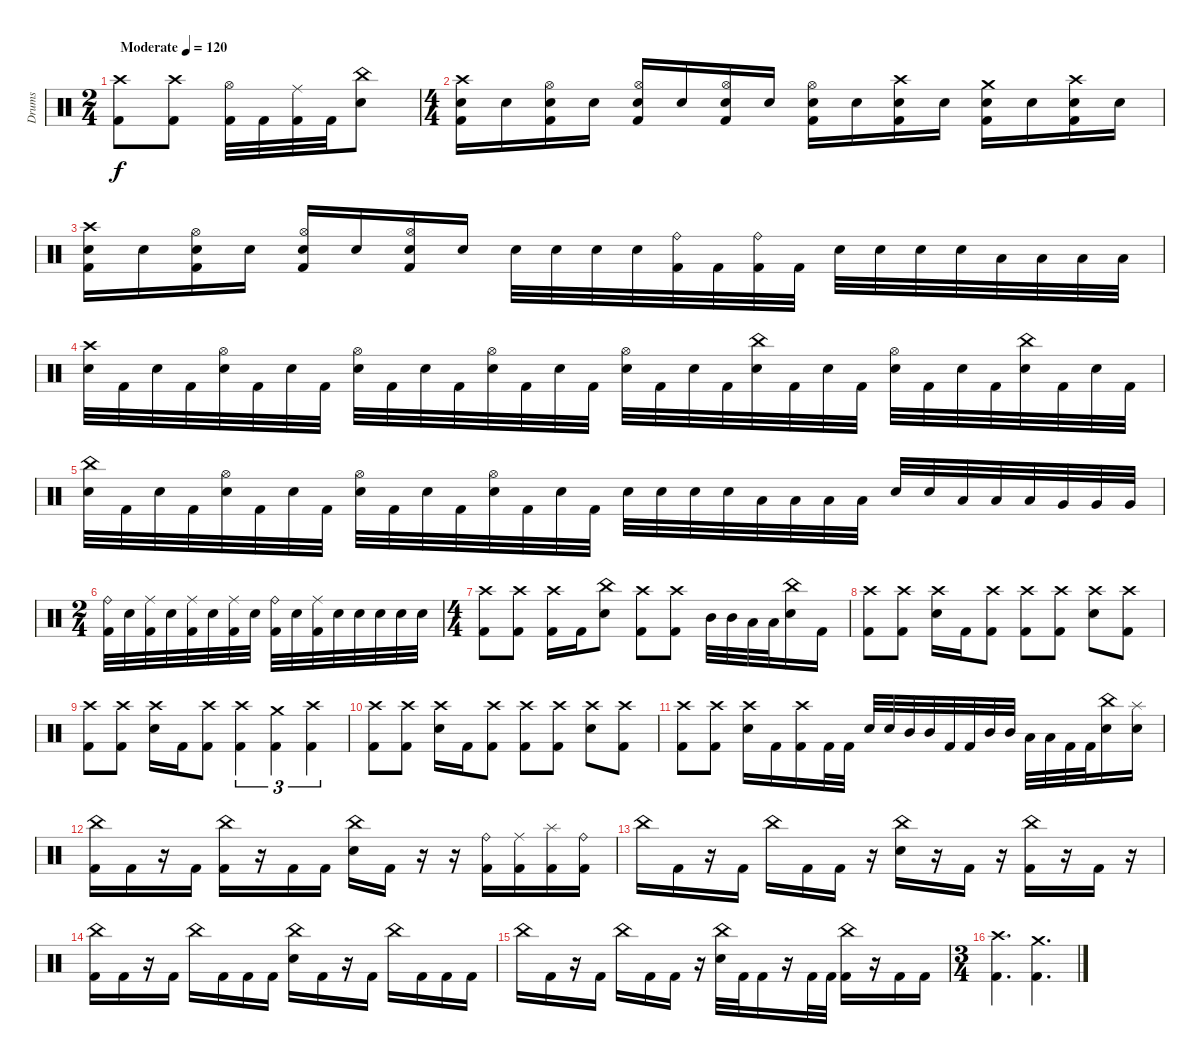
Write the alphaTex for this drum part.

\track ("Drums" "Drums") {instrument percussion}
\staff {score}
\articulation defaults
\ts (2 4)
\tempo (120 "Moderate")
\clef neutral
\ks c
("Crash high (hit)" "Kick (hit) 2").8{dy f} ("Crash high (hit)" "Kick (hit) 2").8 ("Hi-Hat (open)" "Kick (hit) 2").32 "Kick (hit) 2".32 ("Ride (middle)" "Kick (hit) 2").32 "Kick (hit) 2".32 ("China (hit)" "Electric Snare (hit)").8 |
\ts (4 4)
("Crash high (hit)" "Electric Snare (hit)" "Kick (hit) 2").16 "Electric Snare (hit)".16 ("Hi-Hat (open)" "Electric Snare (hit)" "Kick (hit) 2").16 "Electric Snare (hit)".16 ("Hi-Hat (open)" "Electric Snare (hit)" "Kick (hit) 2").16 "Electric Snare (hit)".16 ("Hi-Hat (open)" "Electric Snare (hit)" "Kick (hit) 2").16 "Electric Snare (hit)".16 ("Hi-Hat (open)" "Electric Snare (hit)" "Kick (hit) 2").16 "Electric Snare (hit)".16 ("Crash high (hit)" "Electric Snare (hit)" "Kick (hit) 2").16 "Electric Snare (hit)".16 ("Crash medium (hit)" "Electric Snare (hit)" "Kick (hit) 2").16 "Electric Snare (hit)".16 ("Crash high (hit)" "Electric Snare (hit)" "Kick (hit) 2").16 "Electric Snare (hit)".16 |
("Crash high (hit)" "Electric Snare (hit)" "Kick (hit) 2").16 "Electric Snare (hit)".16 ("Hi-Hat (open)" "Electric Snare (hit)" "Kick (hit) 2").16 "Electric Snare (hit)".16 ("Hi-Hat (open)" "Electric Snare (hit)" "Kick (hit) 2").16 "Electric Snare (hit)".16 ("Hi-Hat (open)" "Electric Snare (hit)" "Kick (hit) 2").16 "Electric Snare (hit)".16 "Electric Snare (hit)".32 "Electric Snare (hit)".32 "Electric Snare (hit)".32 "Electric Snare (hit)".32 ("Ride (bell)" "Kick (hit) 2").32 "Kick (hit) 2".32 ("Ride (bell)" "Kick (hit) 2").32 "Kick (hit) 2".32 "Electric Snare (hit)".32 "Electric Snare (hit)".32 "Electric Snare (hit)".32 "Electric Snare (hit)".32 "Low Tom (hit)".32 "Low Tom (hit)".32 "Low Tom (hit)".32 "Low Tom (hit)".32 |
("Crash high (hit)" "Electric Snare (hit)").32 "Kick (hit) 2".32 "Electric Snare (hit)".32 "Kick (hit) 2".32 ("Hi-Hat (open)" "Electric Snare (hit)").32 "Kick (hit) 2".32 "Electric Snare (hit)".32 "Kick (hit) 2".32 ("Hi-Hat (open)" "Electric Snare (hit)").32 "Kick (hit) 2".32 "Electric Snare (hit)".32 "Kick (hit) 2".32 ("Hi-Hat (open)" "Electric Snare (hit)").32 "Kick (hit) 2".32 "Electric Snare (hit)".32 "Kick (hit) 2".32 ("Hi-Hat (open)" "Electric Snare (hit)").32 "Kick (hit) 2".32 "Electric Snare (hit)".32 "Kick (hit) 2".32 ("China (hit)" "Electric Snare (hit)").32 "Kick (hit) 2".32 "Electric Snare (hit)".32 "Kick (hit) 2".32 ("Hi-Hat (open)" "Electric Snare (hit)").32 "Kick (hit) 2".32 "Electric Snare (hit)".32 "Kick (hit) 2".32 ("China (hit)" "Electric Snare (hit)").32 "Kick (hit) 2".32 "Electric Snare (hit)".32 "Kick (hit) 2".32 |
("China (hit)" "Electric Snare (hit)").32 "Kick (hit) 2".32 "Electric Snare (hit)".32 "Kick (hit) 2".32 ("Hi-Hat (open)" "Electric Snare (hit)").32 "Kick (hit) 2".32 "Electric Snare (hit)".32 "Kick (hit) 2".32 ("Hi-Hat (open)" "Electric Snare (hit)").32 "Kick (hit) 2".32 "Electric Snare (hit)".32 "Kick (hit) 2".32 ("Hi-Hat (open)" "Electric Snare (hit)").32 "Kick (hit) 2".32 "Electric Snare (hit)".32 "Kick (hit) 2".32 "Electric Snare (hit)".32 "Electric Snare (hit)".32 "Electric Snare (hit)".32 "Electric Snare (hit)".32 "Low Tom (hit)".32 "Low Tom (hit)".32 "Low Tom (hit)".32 "Low Tom (hit)".32 "Electric Snare (hit)".32 "Electric Snare (hit)".32 "Low Tom (hit)".32 "Low Tom (hit)".32 "Low Tom (hit)".32 "Very Low Tom (hit)".32 "Very Low Tom (hit)".32 "Very Low Tom (hit)".32 |
\ts (2 4)
("Ride (bell)" "Kick (hit) 2").32 "Electric Snare (hit)".32 ("Ride (middle)" "Kick (hit) 2").32 "Electric Snare (hit)".32 ("Ride (middle)" "Kick (hit) 2").32 "Electric Snare (hit)".32 ("Ride (middle)" "Kick (hit) 2").32 "Electric Snare (hit)".32 ("Ride (bell)" "Kick (hit) 2").32 "Electric Snare (hit)".32 ("Ride (middle)" "Kick (hit) 2").32 "Electric Snare (hit)".32 "Electric Snare (hit)".32 "Electric Snare (hit)".32 "Electric Snare (hit)".32 "Electric Snare (hit)".32 |
\ts (4 4)
("Crash high (hit)" "Kick (hit) 2").8 ("Crash high (hit)" "Kick (hit) 2").8 ("Crash high (hit)" "Kick (hit) 2").16 "Kick (hit) 2".16 ("China (hit)" "Electric Snare (hit)").8 ("Crash high (hit)" "Kick (hit) 2").8 ("Crash high (hit)" "Kick (hit) 2").8 "Mid Tom (hit)".32 "Mid Tom (hit)".32 "Low Tom (hit)".32 "Low Tom (hit)".32 ("China (hit)" "Electric Snare (hit)").16 "Kick (hit) 2".16 |
("Crash high (hit)" "Kick (hit) 2").8 ("Crash high (hit)" "Kick (hit) 2").8 ("Crash high (hit)" "Electric Snare (hit)").16 "Kick (hit) 2".16 ("Crash high (hit)" "Kick (hit) 2").8 ("Crash high (hit)" "Kick (hit) 2").8 ("Crash high (hit)" "Kick (hit) 2").8 ("Crash high (hit)" "Electric Snare (hit)").8 ("Crash high (hit)" "Kick (hit) 2").8 |
("Crash high (hit)" "Kick (hit) 2").8 ("Crash high (hit)" "Kick (hit) 2").8 ("Crash high (hit)" "Electric Snare (hit)").16 "Kick (hit) 2".16 ("Crash high (hit)" "Kick (hit) 2").8 ("Crash high (hit)" "Kick (hit) 2").4{tu (3 2)} ("Crash medium (hit)" "Kick (hit) 2").4{tu (3 2)} ("Crash high (hit)" "Kick (hit) 2").4{tu (3 2)} |
("Crash high (hit)" "Kick (hit) 2").8 ("Crash high (hit)" "Kick (hit) 2").8 ("Crash high (hit)" "Electric Snare (hit)").16 "Kick (hit) 2".16 ("Crash high (hit)" "Kick (hit) 2").8 ("Crash high (hit)" "Kick (hit) 2").8 ("Crash high (hit)" "Kick (hit) 2").8 ("Crash high (hit)" "Electric Snare (hit)").8 ("Crash high (hit)" "Kick (hit) 2").8 |
("Crash high (hit)" "Kick (hit) 2").8 ("Crash high (hit)" "Kick (hit) 2").8 ("Crash high (hit)" "Electric Snare (hit)").16 "Kick (hit) 2".16 ("Crash high (hit)" "Kick (hit) 2").16 "Kick (hit) 2".32 "Kick (hit) 2".32 "Electric Snare (hit)".32 "Electric Snare (hit)".32 "Mid Tom (hit)".32 "Mid Tom (hit)".32 "Kick (hit) 2".32 "Kick (hit) 2".32 "Mid Tom (hit)".32 "Mid Tom (hit)".32 "Low Tom (hit)".32 "Low Tom (hit)".32 "Kick (hit) 2".32 "Kick (hit) 2".32 ("China (hit)" "Electric Snare (hit)").16 ("Splash (hit)" "Electric Snare (hit)").16 |
("China (hit)" "Kick (hit) 2").16 "Kick (hit) 2".16 r.16 "Kick (hit) 2".16 ("China (hit)" "Kick (hit) 2").16 r.16 "Kick (hit) 2".16 "Kick (hit) 2".16 ("China (hit)" "Electric Snare (hit)").16 "Kick (hit) 2".16 r.16 r.16 ("Ride (bell)" "Kick (hit) 2").16 ("Ride (middle)" "Kick (hit) 2").16 ("Splash (hit)" "Kick (hit) 2").16 ("Ride (bell)" "Kick (hit) 2").16 |
"China (hit)".16 "Kick (hit) 2".16 r.16 "Kick (hit) 2".16 "China (hit)".16 "Kick (hit) 2".16 "Kick (hit) 2".16 r.16 ("China (hit)" "Electric Snare (hit)").16 r.16 "Kick (hit) 2".16 r.16 ("China (hit)" "Kick (hit) 2").16 r.16 "Kick (hit) 2".16 r.16 |
("China (hit)" "Kick (hit) 2").16 "Kick (hit) 2".16 r.16 "Kick (hit) 2".16 "China (hit)".16 "Kick (hit) 2".16 "Kick (hit) 2".16 "Kick (hit) 2".16 ("China (hit)" "Electric Snare (hit)").16 "Kick (hit) 2".16 r.16 "Kick (hit) 2".16 "China (hit)".16 "Kick (hit) 2".16 "Kick (hit) 2".16 "Kick (hit) 2".16 |
"China (hit)".16 "Kick (hit) 2".16 r.16 "Kick (hit) 2".16 "China (hit)".16 "Kick (hit) 2".16 "Kick (hit) 2".16 r.16 ("China (hit)" "Electric Snare (hit)").32 "Kick (hit) 2".32 "Kick (hit) 2".16 r.16 "Kick (hit) 2".32 "Kick (hit) 2".32 ("China (hit)" "Kick (hit) 2").16 r.16 "Kick (hit) 2".16 "Kick (hit) 2".16 |
\ts (3 4)
("Crash high (hit)" "Kick (hit) 2").4{d} ("Crash medium (hit)" "Kick (hit) 2").4{d}
